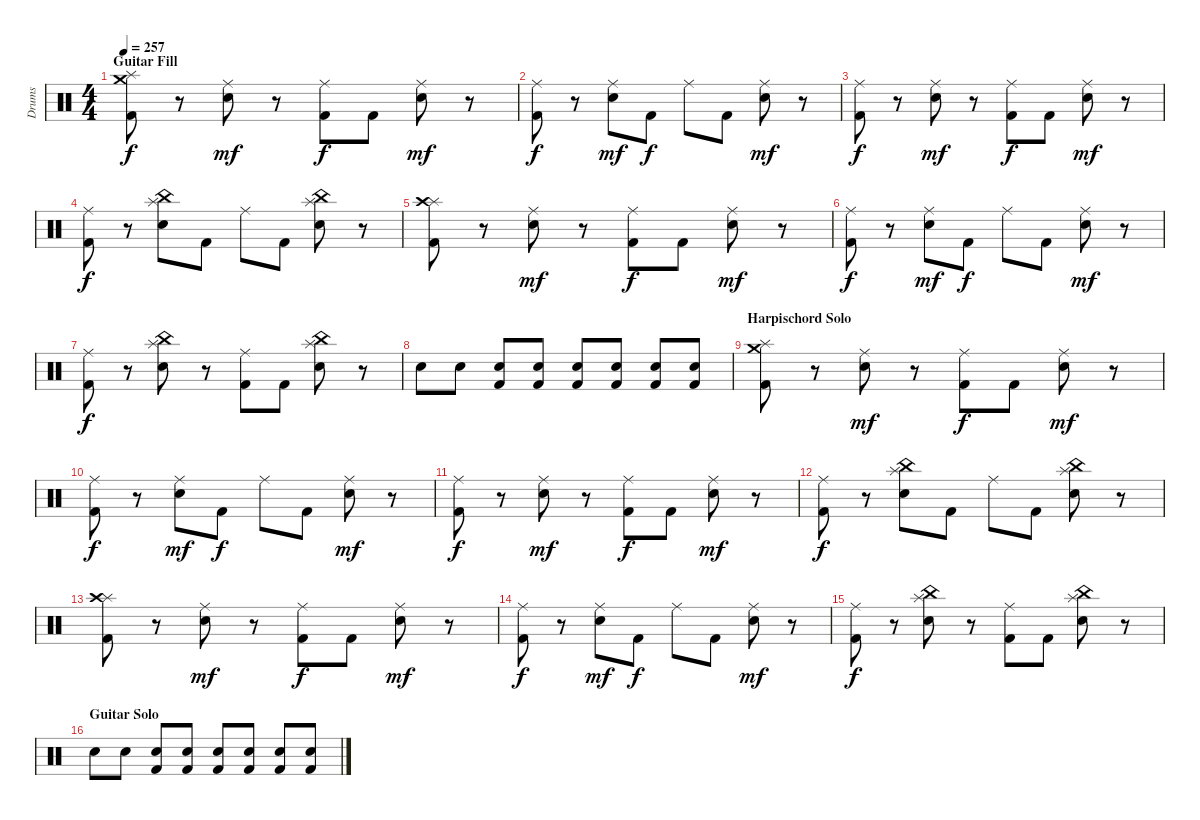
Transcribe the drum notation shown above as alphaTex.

\track ("Drums" "Drums") {instrument percussion}
\staff {score}
\articulation defaults
\ts (4 4)
\section ("" "Guitar Fill")
\tempo 257
\clef neutral
\ks c
("Splash (hit)" "Crash medium (hit)" "Kick (hit) 2").8{dy f} r.8 ("Snare (hit) 2" "Ride (middle)").8{dy mf} r.8 ("Kick (hit) 2" "Ride (middle)").8{dy f} "Kick (hit) 2".8 ("Snare (hit) 2" "Ride (middle)").8{dy mf} r.8 |
("Kick (hit) 2" "Ride (middle)").8{dy f} r.8 ("Snare (hit) 2" "Ride (middle)").8{dy mf} "Kick (hit) 2".8{dy f} "Ride (middle)".8 "Kick (hit) 2".8 ("Snare (hit) 2" "Ride (middle)").8{dy mf} r.8 |
("Ride (middle)" "Kick (hit) 2").8{dy f} r.8 ("Snare (hit) 2" "Ride (middle)").8{dy mf} r.8 ("Kick (hit) 2" "Ride (middle)").8{dy f} "Kick (hit) 2".8 ("Snare (hit) 2" "Ride (middle)").8{dy mf} r.8 |
("Kick (hit) 2" "Ride (middle)").8{dy f} r.8 ("Snare (hit) 2" "Splash (hit)" "China (hit)").8 "Kick (hit) 2".8 "Ride (middle)".8 "Kick (hit) 2".8 ("China (hit)" "Snare (hit) 2" "Splash (hit)").8 r.8 |
("Splash (hit)" "Crash high (hit)" "Kick (hit) 2").8 r.8 ("Snare (hit) 2" "Ride (middle)").8{dy mf} r.8 ("Kick (hit) 2" "Ride (middle)").8{dy f} "Kick (hit) 2".8 ("Snare (hit) 2" "Ride (middle)").8{dy mf} r.8 |
("Kick (hit) 2" "Ride (middle)").8{dy f} r.8 ("Snare (hit) 2" "Ride (middle)").8{dy mf} "Kick (hit) 2".8{dy f} "Ride (middle)".8 "Kick (hit) 2".8 ("Snare (hit) 2" "Ride (middle)").8{dy mf} r.8 |
("Kick (hit) 2" "Ride (middle)").8{dy f} r.8 ("Snare (hit) 2" "Splash (hit)" "China (hit)").8 r.8 ("Kick (hit) 2" "Ride (middle)").8 "Kick (hit) 2".8 ("Snare (hit) 2" "Splash (hit)" "China (hit)").8 r.8 |
"Snare (hit) 2".8 "Snare (hit) 2".8 ("Snare (hit) 2" "Kick (hit) 2").8 ("Snare (hit) 2" "Kick (hit) 2").8 ("Snare (hit) 2" "Kick (hit) 2").8 ("Snare (hit) 2" "Kick (hit) 2").8 ("Snare (hit) 2" "Kick (hit) 2").8 ("Snare (hit) 2" "Kick (hit) 2").8 |
\section ("" "Harpischord Solo")
("Splash (hit)" "Crash medium (hit)" "Kick (hit) 2").8 r.8 ("Snare (hit) 2" "Ride (middle)").8{dy mf} r.8 ("Kick (hit) 2" "Ride (middle)").8{dy f} "Kick (hit) 2".8 ("Snare (hit) 2" "Ride (middle)").8{dy mf} r.8 |
("Kick (hit) 2" "Ride (middle)").8{dy f} r.8 ("Snare (hit) 2" "Ride (middle)").8{dy mf} "Kick (hit) 2".8{dy f} "Ride (middle)".8 "Kick (hit) 2".8 ("Snare (hit) 2" "Ride (middle)").8{dy mf} r.8 |
("Ride (middle)" "Kick (hit) 2").8{dy f} r.8 ("Snare (hit) 2" "Ride (middle)").8{dy mf} r.8 ("Kick (hit) 2" "Ride (middle)").8{dy f} "Kick (hit) 2".8 ("Snare (hit) 2" "Ride (middle)").8{dy mf} r.8 |
("Kick (hit) 2" "Ride (middle)").8{dy f} r.8 ("Snare (hit) 2" "Splash (hit)" "China (hit)").8 "Kick (hit) 2".8 "Ride (middle)".8 "Kick (hit) 2".8 ("Snare (hit) 2" "Splash (hit)" "China (hit)").8 r.8 |
("Splash (hit)" "Crash high (hit)" "Kick (hit) 2").8 r.8 ("Snare (hit) 2" "Ride (middle)").8{dy mf} r.8 ("Kick (hit) 2" "Ride (middle)").8{dy f} "Kick (hit) 2".8 ("Snare (hit) 2" "Ride (middle)").8{dy mf} r.8 |
("Kick (hit) 2" "Ride (middle)").8{dy f} r.8 ("Snare (hit) 2" "Ride (middle)").8{dy mf} "Kick (hit) 2".8{dy f} "Ride (middle)".8 "Kick (hit) 2".8 ("Snare (hit) 2" "Ride (middle)").8{dy mf} r.8 |
("Kick (hit) 2" "Ride (middle)").8{dy f} r.8 ("Snare (hit) 2" "Splash (hit)" "China (hit)").8 r.8 ("Kick (hit) 2" "Ride (middle)").8 "Kick (hit) 2".8 ("Snare (hit) 2" "Splash (hit)" "China (hit)").8 r.8 |
\section ("" "Guitar Solo")
"Snare (hit) 2".8 "Snare (hit) 2".8 ("Snare (hit) 2" "Kick (hit) 2").8 ("Snare (hit) 2" "Kick (hit) 2").8 ("Snare (hit) 2" "Kick (hit) 2").8 ("Snare (hit) 2" "Kick (hit) 2").8 ("Snare (hit) 2" "Kick (hit) 2").8 ("Snare (hit) 2" "Kick (hit) 2").8
